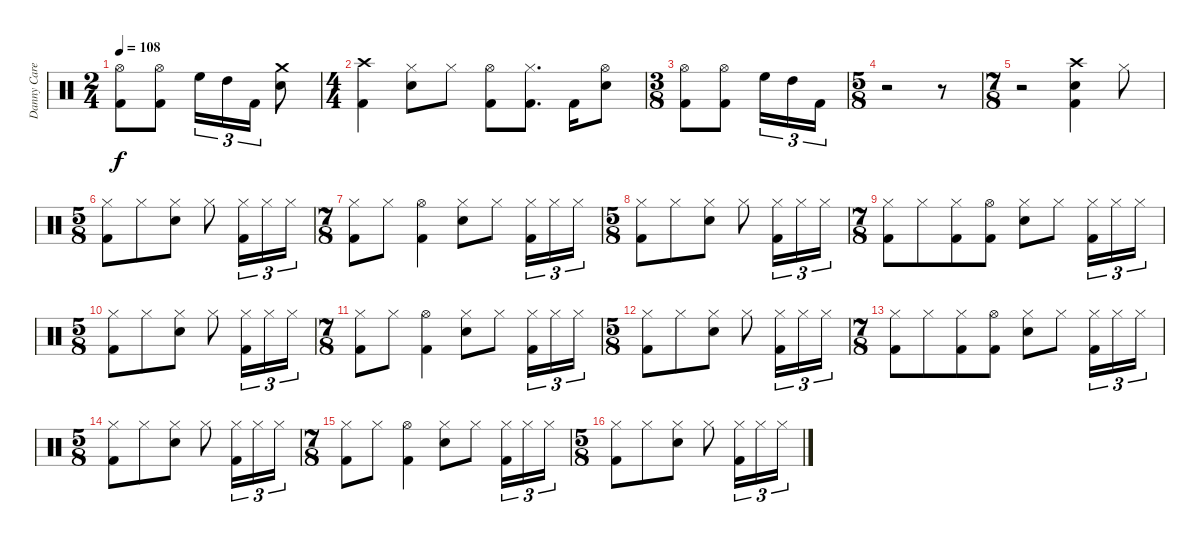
\track ("Danny Carey" "Danny Care") {instrument percussion}
\staff {score}
\articulation defaults
\ts (2 4)
\tempo 108
\clef neutral
\ks c
("Hi-Hat (open)" "Kick (hit) 2").8{dy f} ("Hi-Hat (open)" "Kick (hit) 2").8 "High Floor Tom (hit)".16{tu (3 2)} "High Tom (hit)".16{tu (3 2)} "Kick (hit) 2".16{tu (3 2)} ("Crash medium (hit)" "Electric Snare (hit)").8 |
\ts (4 4)
("Crash high (hit)" "Kick (hit) 2").4 ("Hi-Hat (closed)" "Electric Snare (hit)").8 "Hi-Hat (closed)".8 ("Hi-Hat (open)" "Kick (hit) 2").8 ("Hi-Hat (closed)" "Kick (hit) 2").8{d} "Kick (hit) 2".16 ("Hi-Hat (open)" "Electric Snare (hit)").8 |
\ts (3 8)
("Hi-Hat (open)" "Kick (hit) 2").8 ("Hi-Hat (open)" "Kick (hit) 2").8 "High Floor Tom (hit)".16{tu (3 2)} "High Tom (hit)".16{tu (3 2)} "Kick (hit) 2".16{tu (3 2)} |
\ts (5 8)
r.2 r.8 |
\ts (7 8)
r.2 ("Crash high (hit)" "Electric Snare (hit)" "Kick (hit) 2").4 "Hi-Hat (closed)".8 |
\ts (5 8)
("Hi-Hat (closed)" "Kick (hit) 2").8 "Hi-Hat (closed)".8 ("Hi-Hat (closed)" "Electric Snare (hit)").8 "Hi-Hat (closed)".8 ("Hi-Hat (closed)" "Kick (hit) 2").16{tu (3 2)} "Hi-Hat (closed)".16{tu (3 2)} "Hi-Hat (closed)".16{tu (3 2)} |
\ts (7 8)
("Hi-Hat (closed)" "Kick (hit) 2").8 "Hi-Hat (closed)".8 ("Hi-Hat (open)" "Kick (hit) 2").4 ("Hi-Hat (closed)" "Electric Snare (hit)").8 "Hi-Hat (closed)".8 ("Hi-Hat (closed)" "Kick (hit) 2").16{tu (3 2)} "Hi-Hat (closed)".16{tu (3 2)} "Hi-Hat (closed)".16{tu (3 2)} |
\ts (5 8)
("Hi-Hat (closed)" "Kick (hit) 2").8 "Hi-Hat (closed)".8 ("Hi-Hat (closed)" "Electric Snare (hit)").8 "Hi-Hat (closed)".8 ("Hi-Hat (closed)" "Kick (hit) 2").16{tu (3 2)} "Hi-Hat (closed)".16{tu (3 2)} "Hi-Hat (closed)".16{tu (3 2)} |
\ts (7 8)
("Hi-Hat (closed)" "Kick (hit) 2").8 "Hi-Hat (closed)".8 ("Hi-Hat (closed)" "Kick (hit) 2").8 ("Hi-Hat (open)" "Kick (hit) 2").8 ("Hi-Hat (closed)" "Electric Snare (hit)").8 "Hi-Hat (closed)".8 ("Hi-Hat (closed)" "Kick (hit) 2").16{tu (3 2)} "Hi-Hat (closed)".16{tu (3 2)} "Hi-Hat (closed)".16{tu (3 2)} |
\ts (5 8)
("Hi-Hat (closed)" "Kick (hit) 2").8 "Hi-Hat (closed)".8 ("Hi-Hat (closed)" "Electric Snare (hit)").8 "Hi-Hat (closed)".8 ("Hi-Hat (closed)" "Kick (hit) 2").16{tu (3 2)} "Hi-Hat (closed)".16{tu (3 2)} "Hi-Hat (closed)".16{tu (3 2)} |
\ts (7 8)
("Hi-Hat (closed)" "Kick (hit) 2").8 "Hi-Hat (closed)".8 ("Hi-Hat (open)" "Kick (hit) 2").4 ("Hi-Hat (closed)" "Electric Snare (hit)").8 "Hi-Hat (closed)".8 ("Hi-Hat (closed)" "Kick (hit) 2").16{tu (3 2)} "Hi-Hat (closed)".16{tu (3 2)} "Hi-Hat (closed)".16{tu (3 2)} |
\ts (5 8)
("Hi-Hat (closed)" "Kick (hit) 2").8 "Hi-Hat (closed)".8 ("Hi-Hat (closed)" "Electric Snare (hit)").8 "Hi-Hat (closed)".8 ("Hi-Hat (closed)" "Kick (hit) 2").16{tu (3 2)} "Hi-Hat (closed)".16{tu (3 2)} "Hi-Hat (closed)".16{tu (3 2)} |
\ts (7 8)
("Hi-Hat (closed)" "Kick (hit) 2").8 "Hi-Hat (closed)".8 ("Hi-Hat (closed)" "Kick (hit) 2").8 ("Hi-Hat (open)" "Kick (hit) 2").8 ("Hi-Hat (closed)" "Electric Snare (hit)").8 "Hi-Hat (closed)".8 ("Hi-Hat (closed)" "Kick (hit) 2").16{tu (3 2)} "Hi-Hat (closed)".16{tu (3 2)} "Hi-Hat (closed)".16{tu (3 2)} |
\ts (5 8)
("Hi-Hat (closed)" "Kick (hit) 2").8 "Hi-Hat (closed)".8 ("Hi-Hat (closed)" "Electric Snare (hit)").8 "Hi-Hat (closed)".8 ("Hi-Hat (closed)" "Kick (hit) 2").16{tu (3 2)} "Hi-Hat (closed)".16{tu (3 2)} "Hi-Hat (closed)".16{tu (3 2)} |
\ts (7 8)
("Hi-Hat (closed)" "Kick (hit) 2").8 "Hi-Hat (closed)".8 ("Hi-Hat (open)" "Kick (hit) 2").4 ("Hi-Hat (closed)" "Electric Snare (hit)").8 "Hi-Hat (closed)".8 ("Hi-Hat (closed)" "Kick (hit) 2").16{tu (3 2)} "Hi-Hat (closed)".16{tu (3 2)} "Hi-Hat (closed)".16{tu (3 2)} |
\ts (5 8)
("Hi-Hat (closed)" "Kick (hit) 2").8 "Hi-Hat (closed)".8 ("Hi-Hat (closed)" "Electric Snare (hit)").8 "Hi-Hat (closed)".8 ("Hi-Hat (closed)" "Kick (hit) 2").16{tu (3 2)} "Hi-Hat (closed)".16{tu (3 2)} "Hi-Hat (closed)".16{tu (3 2)}
